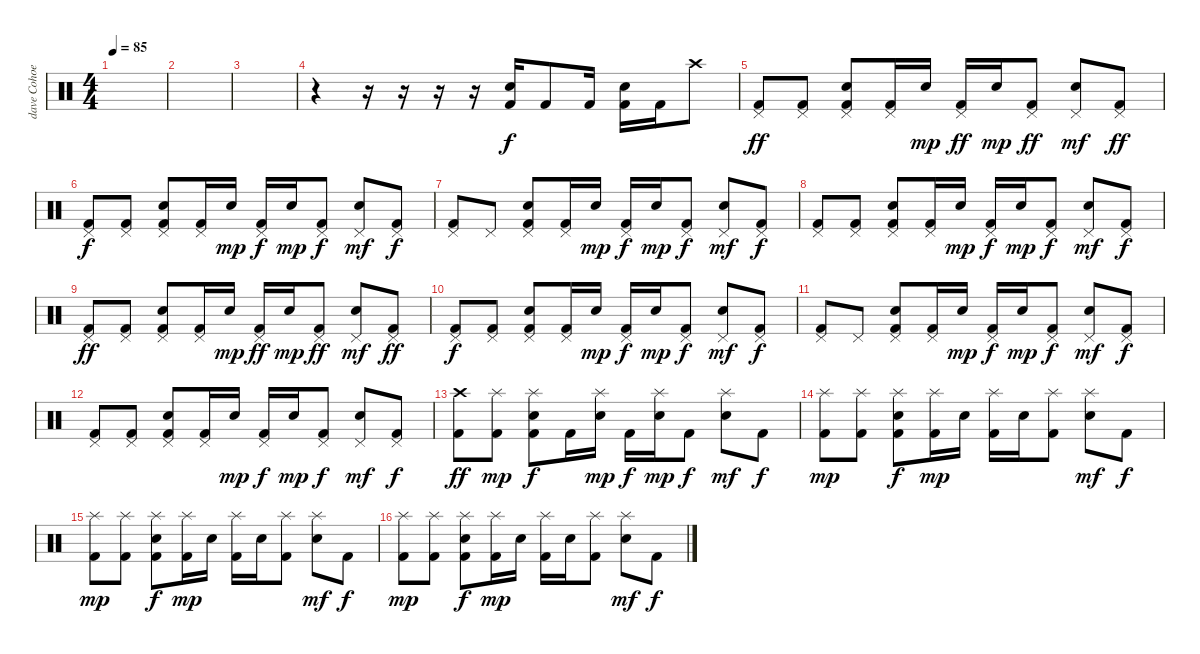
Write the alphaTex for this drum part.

\track ("dave Cohoe" "dave Cohoe") {instrument percussion}
\staff {score}
\articulation defaults
\ts (4 4)
\tempo 85
\clef neutral
\ks c
|
|
|
r.4 r.16 r.16 r.16 r.16 ("Electric Snare (hit)" "Kick (hit) 2").16 "Kick (hit) 2".8 "Kick (hit) 2".16 ("Electric Snare (hit)" "Kick (hit) 2").16 "Kick (hit) 2".16 "Crash high (hit)".8 |
("Pedal Hi-Hat (hit)" "Kick (hit) 2").8{dy ff} ("Pedal Hi-Hat (hit)" "Kick (hit) 2").8 ("Pedal Hi-Hat (hit)" "Electric Snare (hit)" "Kick (hit) 2").8 ("Pedal Hi-Hat (hit)" "Kick (hit) 2").16 "Snare (hit) 2".16{dy mp} ("Pedal Hi-Hat (hit)" "Kick (hit) 2").16{dy ff} "Electric Snare (hit)".16{dy mp} ("Pedal Hi-Hat (hit)" "Kick (hit) 2").8{dy ff} ("Pedal Hi-Hat (hit)" "Electric Snare (hit)").8{dy mf} ("Pedal Hi-Hat (hit)" "Kick (hit) 2").8{dy ff} |
("Pedal Hi-Hat (hit)" "Kick (hit) 2").8{dy f} ("Pedal Hi-Hat (hit)" "Kick (hit) 2").8 ("Pedal Hi-Hat (hit)" "Electric Snare (hit)" "Kick (hit) 2").8 ("Pedal Hi-Hat (hit)" "Kick (hit) 2").16 "Snare (hit) 2".16{dy mp} ("Pedal Hi-Hat (hit)" "Kick (hit) 2").16{dy f} "Electric Snare (hit)".16{dy mp} ("Pedal Hi-Hat (hit)" "Kick (hit) 2").8{dy f} ("Pedal Hi-Hat (hit)" "Electric Snare (hit)").8{dy mf} ("Pedal Hi-Hat (hit)" "Kick (hit) 2").8{dy f} |
("Pedal Hi-Hat (hit)" "Kick (hit) 2").8 "Pedal Hi-Hat (hit)".8 ("Pedal Hi-Hat (hit)" "Electric Snare (hit)" "Kick (hit) 2").8 ("Pedal Hi-Hat (hit)" "Kick (hit) 2").16 "Snare (hit) 2".16{dy mp} ("Pedal Hi-Hat (hit)" "Kick (hit) 2").16{dy f} "Electric Snare (hit)".16{dy mp} ("Pedal Hi-Hat (hit)" "Kick (hit) 2").8{dy f} ("Pedal Hi-Hat (hit)" "Electric Snare (hit)").8{dy mf} ("Pedal Hi-Hat (hit)" "Kick (hit) 2").8{dy f} |
("Pedal Hi-Hat (hit)" "Kick (hit) 2").8 ("Pedal Hi-Hat (hit)" "Kick (hit) 2").8 ("Pedal Hi-Hat (hit)" "Electric Snare (hit)" "Kick (hit) 2").8 ("Pedal Hi-Hat (hit)" "Kick (hit) 2").16 "Snare (hit) 2".16{dy mp} ("Pedal Hi-Hat (hit)" "Kick (hit) 2").16{dy f} "Electric Snare (hit)".16{dy mp} ("Pedal Hi-Hat (hit)" "Kick (hit) 2").8{dy f} ("Pedal Hi-Hat (hit)" "Electric Snare (hit)").8{dy mf} ("Pedal Hi-Hat (hit)" "Kick (hit) 2").8{dy f} |
("Pedal Hi-Hat (hit)" "Kick (hit) 2").8{dy ff} ("Pedal Hi-Hat (hit)" "Kick (hit) 2").8 ("Pedal Hi-Hat (hit)" "Electric Snare (hit)" "Kick (hit) 2").8 ("Pedal Hi-Hat (hit)" "Kick (hit) 2").16 "Snare (hit) 2".16{dy mp} ("Pedal Hi-Hat (hit)" "Kick (hit) 2").16{dy ff} "Electric Snare (hit)".16{dy mp} ("Pedal Hi-Hat (hit)" "Kick (hit) 2").8{dy ff} ("Pedal Hi-Hat (hit)" "Electric Snare (hit)").8{dy mf} ("Pedal Hi-Hat (hit)" "Kick (hit) 2").8{dy ff} |
("Pedal Hi-Hat (hit)" "Kick (hit) 2").8{dy f} ("Pedal Hi-Hat (hit)" "Kick (hit) 2").8 ("Pedal Hi-Hat (hit)" "Electric Snare (hit)" "Kick (hit) 2").8 ("Pedal Hi-Hat (hit)" "Kick (hit) 2").16 "Snare (hit) 2".16{dy mp} ("Pedal Hi-Hat (hit)" "Kick (hit) 2").16{dy f} "Electric Snare (hit)".16{dy mp} ("Pedal Hi-Hat (hit)" "Kick (hit) 2").8{dy f} ("Pedal Hi-Hat (hit)" "Electric Snare (hit)").8{dy mf} ("Pedal Hi-Hat (hit)" "Kick (hit) 2").8{dy f} |
("Pedal Hi-Hat (hit)" "Kick (hit) 2").8 "Pedal Hi-Hat (hit)".8 ("Pedal Hi-Hat (hit)" "Electric Snare (hit)" "Kick (hit) 2").8 ("Pedal Hi-Hat (hit)" "Kick (hit) 2").16 "Snare (hit) 2".16{dy mp} ("Pedal Hi-Hat (hit)" "Kick (hit) 2").16{dy f} "Electric Snare (hit)".16{dy mp} ("Pedal Hi-Hat (hit)" "Kick (hit) 2").8{dy f} ("Pedal Hi-Hat (hit)" "Electric Snare (hit)").8{dy mf} ("Pedal Hi-Hat (hit)" "Kick (hit) 2").8{dy f} |
("Pedal Hi-Hat (hit)" "Kick (hit) 2").8 ("Pedal Hi-Hat (hit)" "Kick (hit) 2").8 ("Pedal Hi-Hat (hit)" "Electric Snare (hit)" "Kick (hit) 2").8 ("Pedal Hi-Hat (hit)" "Kick (hit) 2").16 "Snare (hit) 2".16{dy mp} ("Pedal Hi-Hat (hit)" "Kick (hit) 2").16{dy f} "Electric Snare (hit)".16{dy mp} ("Pedal Hi-Hat (hit)" "Kick (hit) 2").8{dy f} ("Pedal Hi-Hat (hit)" "Electric Snare (hit)").8{dy mf} ("Pedal Hi-Hat (hit)" "Kick (hit) 2").8{dy f} |
("Crash high (hit)" "Kick (hit) 2").8{dy ff} ("Splash (hit)" "Kick (hit) 2").8{dy mp} ("Splash (hit)" "Electric Snare (hit)" "Kick (hit) 2").8{dy f} "Kick (hit) 2".16 ("Splash (hit)" "Snare (hit) 2").16{dy mp} "Kick (hit) 2".16{dy f} ("Splash (hit)" "Electric Snare (hit)").16{dy mp} "Kick (hit) 2".8{dy f} ("Splash (hit)" "Electric Snare (hit)").8{dy mf} "Kick (hit) 2".8{dy f} |
("Splash (hit)" "Kick (hit) 2").8{dy mp} ("Splash (hit)" "Kick (hit) 2").8 ("Splash (hit)" "Electric Snare (hit)" "Kick (hit) 2").8{dy f} ("Splash (hit)" "Kick (hit) 2").16{dy mp} "Snare (hit) 2".16 ("Splash (hit)" "Kick (hit) 2").16 "Electric Snare (hit)".16 ("Splash (hit)" "Kick (hit) 2").8 ("Splash (hit)" "Electric Snare (hit)").8{dy mf} "Kick (hit) 2".8{dy f} |
("Splash (hit)" "Kick (hit) 2").8{dy mp} ("Splash (hit)" "Kick (hit) 2").8 ("Splash (hit)" "Electric Snare (hit)" "Kick (hit) 2").8{dy f} ("Splash (hit)" "Kick (hit) 2").16{dy mp} "Snare (hit) 2".16 ("Splash (hit)" "Kick (hit) 2").16 "Electric Snare (hit)".16 ("Splash (hit)" "Kick (hit) 2").8 ("Splash (hit)" "Electric Snare (hit)").8{dy mf} "Kick (hit) 2".8{dy f} |
("Splash (hit)" "Kick (hit) 2").8{dy mp} ("Splash (hit)" "Kick (hit) 2").8 ("Splash (hit)" "Electric Snare (hit)" "Kick (hit) 2").8{dy f} ("Splash (hit)" "Kick (hit) 2").16{dy mp} "Snare (hit) 2".16 ("Splash (hit)" "Kick (hit) 2").16 "Electric Snare (hit)".16 ("Splash (hit)" "Kick (hit) 2").8 ("Splash (hit)" "Electric Snare (hit)").8{dy mf} "Kick (hit) 2".8{dy f}
